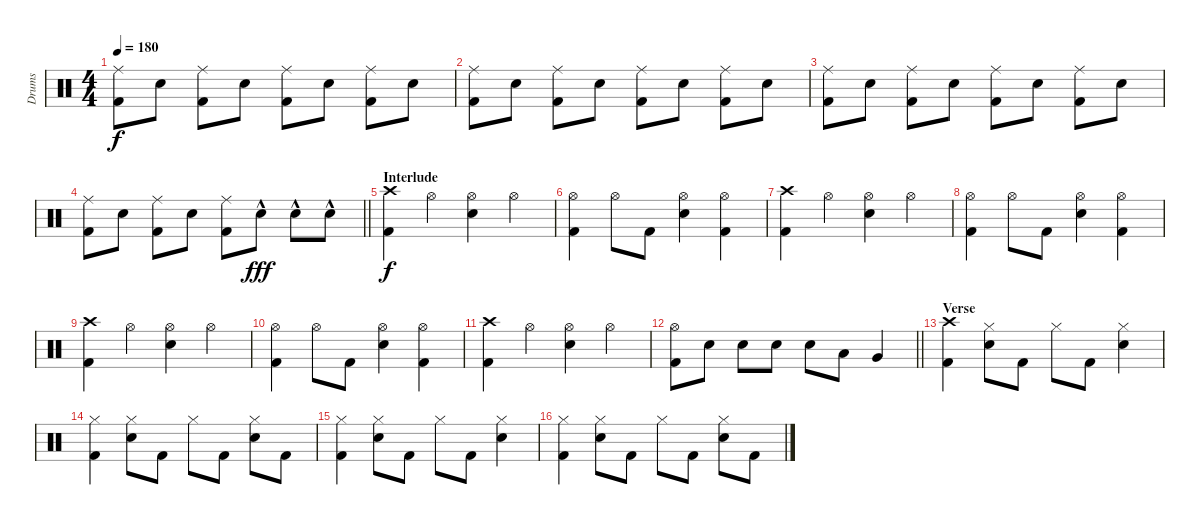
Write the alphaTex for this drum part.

\track ("Drums" "Drums") {instrument percussion}
\staff {score}
\articulation defaults
\ts (4 4)
\tempo 180
\clef neutral
\ks c
("Ride (middle)" "Kick (hit) 2").8{dy f} "Snare (hit) 2".8 ("Ride (middle)" "Kick (hit) 2").8 "Snare (hit) 2".8 ("Ride (middle)" "Kick (hit) 2").8 "Snare (hit) 2".8 ("Ride (middle)" "Kick (hit) 2").8 "Snare (hit) 2".8 |
("Ride (middle)" "Kick (hit) 2").8 "Snare (hit) 2".8 ("Ride (middle)" "Kick (hit) 2").8 "Snare (hit) 2".8 ("Ride (middle)" "Kick (hit) 2").8 "Snare (hit) 2".8 ("Ride (middle)" "Kick (hit) 2").8 "Snare (hit) 2".8 |
("Ride (middle)" "Kick (hit) 2").8 "Snare (hit) 2".8 ("Ride (middle)" "Kick (hit) 2").8 "Snare (hit) 2".8 ("Ride (middle)" "Kick (hit) 2").8 "Snare (hit) 2".8 ("Ride (middle)" "Kick (hit) 2").8 "Snare (hit) 2".8 |
\barLineRight lightlight
("Ride (middle)" "Kick (hit) 2").8 "Snare (hit) 2".8 ("Ride (middle)" "Kick (hit) 2").8 "Snare (hit) 2".8 ("Ride (middle)" "Kick (hit) 2").8 "Snare (hit) 2"{hac}.8{dy fff} "Snare (hit) 2"{hac}.8 "Snare (hit) 2"{hac}.8 |
\section ("" "Interlude")
("Crash high (hit)" "Kick (hit) 2").4{dy f} "Hi-Hat (open)".4 ("Hi-Hat (open)" "Snare (hit) 2").4 "Hi-Hat (open)".4 |
("Hi-Hat (open)" "Kick (hit) 2").4 "Hi-Hat (open)".8 "Kick (hit) 2".8 ("Hi-Hat (open)" "Snare (hit) 2").4 ("Hi-Hat (open)" "Kick (hit) 2").4 |
("Crash high (hit)" "Kick (hit) 2").4 "Hi-Hat (open)".4 ("Hi-Hat (open)" "Snare (hit) 2").4 "Hi-Hat (open)".4 |
("Hi-Hat (open)" "Kick (hit) 2").4 "Hi-Hat (open)".8 "Kick (hit) 2".8 ("Hi-Hat (open)" "Snare (hit) 2").4 ("Hi-Hat (open)" "Kick (hit) 2").4 |
("Crash high (hit)" "Kick (hit) 2").4 "Hi-Hat (open)".4 ("Hi-Hat (open)" "Snare (hit) 2").4 "Hi-Hat (open)".4 |
("Hi-Hat (open)" "Kick (hit) 2").4 "Hi-Hat (open)".8 "Kick (hit) 2".8 ("Hi-Hat (open)" "Snare (hit) 2").4 ("Hi-Hat (open)" "Kick (hit) 2").4 |
("Crash high (hit)" "Kick (hit) 2").4 "Hi-Hat (open)".4 ("Hi-Hat (open)" "Snare (hit) 2").4 "Hi-Hat (open)".4 |
\barLineRight lightlight
("Hi-Hat (open)" "Kick (hit) 2").8 "Snare (hit) 2".8 "Snare (hit) 2".8 "Snare (hit) 2".8 "Snare (hit) 2".8 "Low Tom (hit)".8 "Very Low Tom (hit)".4 |
\section ("" "Verse")
("Crash high (hit)" "Kick (hit) 2").4 ("Hi-Hat (closed)" "Snare (hit) 2").8 "Kick (hit) 2".8 "Hi-Hat (closed)".8 "Kick (hit) 2".8 ("Hi-Hat (closed)" "Snare (hit) 2").4 |
("Hi-Hat (closed)" "Kick (hit) 2").4 ("Hi-Hat (closed)" "Snare (hit) 2").8 "Kick (hit) 2".8 "Hi-Hat (closed)".8 "Kick (hit) 2".8 ("Hi-Hat (closed)" "Snare (hit) 2").8 "Kick (hit) 2".8 |
("Hi-Hat (closed)" "Kick (hit) 2").4 ("Hi-Hat (closed)" "Snare (hit) 2").8 "Kick (hit) 2".8 "Hi-Hat (closed)".8 "Kick (hit) 2".8 ("Hi-Hat (closed)" "Snare (hit) 2").4 |
("Hi-Hat (closed)" "Kick (hit) 2").4 ("Hi-Hat (closed)" "Snare (hit) 2").8 "Kick (hit) 2".8 "Hi-Hat (closed)".8 "Kick (hit) 2".8 ("Hi-Hat (closed)" "Snare (hit) 2").8 "Kick (hit) 2".8
